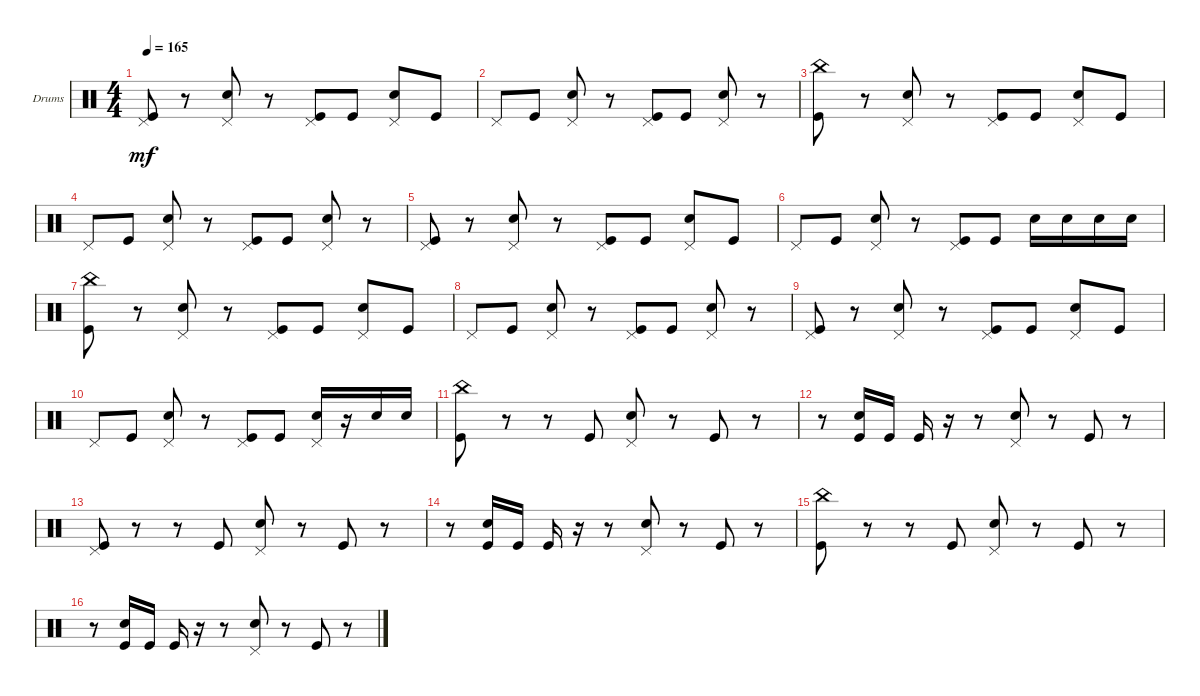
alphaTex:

\defaultSystemsLayout 4
\bracketExtendMode groupsimilarinstruments
\firstSystemTrackNameOrientation horizontal
\otherSystemsTrackNameOrientation horizontal
\track ("Drumkit" "Drums") {instrument percussion}
\staff {score}
\articulation defaults
\ts (4 4)
\tempo 165
\clef neutral
\ks c
("Kick (hit)" "Pedal Hi-Hat (hit)").8{dy mf} r.8 ("Snare (hit) 2" "Pedal Hi-Hat (hit)").8 r.8 ("Kick (hit)" "Pedal Hi-Hat (hit)").8 "Kick (hit)".8 ("Snare (hit) 2" "Pedal Hi-Hat (hit)").8 "Kick (hit)".8 |
"Pedal Hi-Hat (hit)".8 "Kick (hit)".8 ("Snare (hit) 2" "Pedal Hi-Hat (hit)").8 r.8 ("Kick (hit)" "Pedal Hi-Hat (hit)").8 "Kick (hit)".8 ("Snare (hit) 2" "Pedal Hi-Hat (hit)").8 r.8 |
("Kick (hit)" "China (hit)").8 r.8 ("Snare (hit) 2" "Pedal Hi-Hat (hit)").8 r.8 ("Kick (hit)" "Pedal Hi-Hat (hit)").8 "Kick (hit)".8 ("Snare (hit) 2" "Pedal Hi-Hat (hit)").8 "Kick (hit)".8 |
"Pedal Hi-Hat (hit)".8 "Kick (hit)".8 ("Snare (hit) 2" "Pedal Hi-Hat (hit)").8 r.8 ("Kick (hit)" "Pedal Hi-Hat (hit)").8 "Kick (hit)".8 ("Snare (hit) 2" "Pedal Hi-Hat (hit)").8 r.8 |
("Kick (hit)" "Pedal Hi-Hat (hit)").8 r.8 ("Snare (hit) 2" "Pedal Hi-Hat (hit)").8 r.8 ("Kick (hit)" "Pedal Hi-Hat (hit)").8 "Kick (hit)".8 ("Snare (hit) 2" "Pedal Hi-Hat (hit)").8 "Kick (hit)".8 |
"Pedal Hi-Hat (hit)".8 "Kick (hit)".8 ("Snare (hit) 2" "Pedal Hi-Hat (hit)").8 r.8 ("Kick (hit)" "Pedal Hi-Hat (hit)").8 "Kick (hit)".8 "Snare (hit) 2".16 "Snare (hit) 2".16 "Snare (hit) 2".16 "Snare (hit) 2".16 |
("Kick (hit)" "China (hit)").8 r.8 ("Snare (hit) 2" "Pedal Hi-Hat (hit)").8 r.8 ("Kick (hit)" "Pedal Hi-Hat (hit)").8 "Kick (hit)".8 ("Snare (hit) 2" "Pedal Hi-Hat (hit)").8 "Kick (hit)".8 |
"Pedal Hi-Hat (hit)".8 "Kick (hit)".8 ("Snare (hit) 2" "Pedal Hi-Hat (hit)").8 r.8 ("Kick (hit)" "Pedal Hi-Hat (hit)").8 "Kick (hit)".8 ("Snare (hit) 2" "Pedal Hi-Hat (hit)").8 r.8 |
("Kick (hit)" "Pedal Hi-Hat (hit)").8 r.8 ("Snare (hit) 2" "Pedal Hi-Hat (hit)").8 r.8 ("Kick (hit)" "Pedal Hi-Hat (hit)").8 "Kick (hit)".8 ("Snare (hit) 2" "Pedal Hi-Hat (hit)").8 "Kick (hit)".8 |
"Pedal Hi-Hat (hit)".8 "Kick (hit)".8 ("Snare (hit) 2" "Pedal Hi-Hat (hit)").8 r.8 ("Kick (hit)" "Pedal Hi-Hat (hit)").8 "Kick (hit)".8 ("Snare (hit) 2" "Pedal Hi-Hat (hit)").16 r.16 "Snare (hit) 2".16 "Snare (hit) 2".16 |
("China (hit)" "Kick (hit)").8 r.8 r.8 "Kick (hit)".8 ("Snare (hit) 2" "Pedal Hi-Hat (hit)").8 r.8 "Kick (hit)".8 r.8 |
r.8 ("Kick (hit)" "Snare (hit) 2").16 "Kick (hit)".16 "Kick (hit)".16 r.16 r.8 ("Snare (hit) 2" "Pedal Hi-Hat (hit)").8 r.8 "Kick (hit)".8 r.8 |
("Kick (hit)" "Pedal Hi-Hat (hit)").8 r.8 r.8 "Kick (hit)".8 ("Snare (hit) 2" "Pedal Hi-Hat (hit)").8 r.8 "Kick (hit)".8 r.8 |
r.8 ("Kick (hit)" "Snare (hit) 2").16 "Kick (hit)".16 "Kick (hit)".16 r.16 r.8 ("Snare (hit) 2" "Pedal Hi-Hat (hit)").8 r.8 "Kick (hit)".8 r.8 |
("China (hit)" "Kick (hit)").8 r.8 r.8 "Kick (hit)".8 ("Snare (hit) 2" "Pedal Hi-Hat (hit)").8 r.8 "Kick (hit)".8 r.8 |
r.8 ("Kick (hit)" "Snare (hit) 2").16 "Kick (hit)".16 "Kick (hit)".16 r.16 r.8 ("Snare (hit) 2" "Pedal Hi-Hat (hit)").8 r.8 "Kick (hit)".8 r.8
